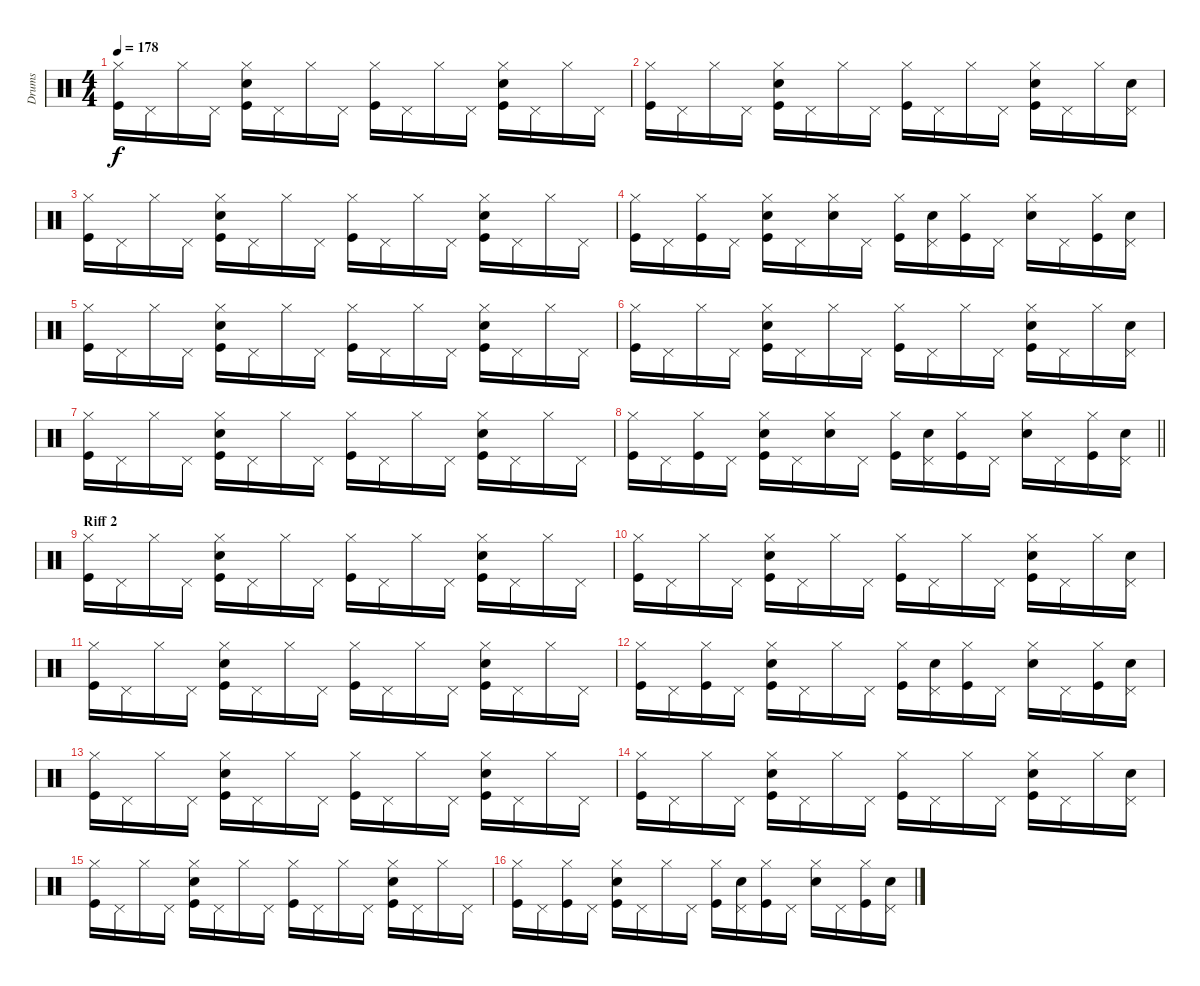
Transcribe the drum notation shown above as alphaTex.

\track ("Drums" "Drums") {instrument percussion}
\staff {score}
\articulation defaults
\ts (4 4)
\tempo 178
\clef neutral
\ks c
("Kick (hit)" "Hi-Hat (closed)").16{dy f} "Pedal Hi-Hat (hit)".16 "Hi-Hat (closed)".16 "Pedal Hi-Hat (hit)".16 ("Kick (hit)" "Electric Snare (hit)" "Hi-Hat (closed)").16 "Pedal Hi-Hat (hit)".16 "Hi-Hat (closed)".16 "Pedal Hi-Hat (hit)".16 ("Kick (hit)" "Hi-Hat (closed)").16 "Pedal Hi-Hat (hit)".16 "Hi-Hat (closed)".16 "Pedal Hi-Hat (hit)".16 ("Kick (hit)" "Electric Snare (hit)" "Hi-Hat (closed)").16 "Pedal Hi-Hat (hit)".16 "Hi-Hat (closed)".16 "Pedal Hi-Hat (hit)".16 |
("Kick (hit)" "Hi-Hat (closed)").16 "Pedal Hi-Hat (hit)".16 "Hi-Hat (closed)".16 "Pedal Hi-Hat (hit)".16 ("Kick (hit)" "Electric Snare (hit)" "Hi-Hat (closed)").16 "Pedal Hi-Hat (hit)".16 "Hi-Hat (closed)".16 "Pedal Hi-Hat (hit)".16 ("Kick (hit)" "Hi-Hat (closed)").16 "Pedal Hi-Hat (hit)".16 "Hi-Hat (closed)".16 "Pedal Hi-Hat (hit)".16 ("Kick (hit)" "Electric Snare (hit)" "Hi-Hat (closed)").16 "Pedal Hi-Hat (hit)".16 "Hi-Hat (closed)".16 ("Electric Snare (hit)" "Pedal Hi-Hat (hit)").16 |
("Kick (hit)" "Hi-Hat (closed)").16 "Pedal Hi-Hat (hit)".16 "Hi-Hat (closed)".16 "Pedal Hi-Hat (hit)".16 ("Kick (hit)" "Electric Snare (hit)" "Hi-Hat (closed)").16 "Pedal Hi-Hat (hit)".16 "Hi-Hat (closed)".16 "Pedal Hi-Hat (hit)".16 ("Kick (hit)" "Hi-Hat (closed)").16 "Pedal Hi-Hat (hit)".16 "Hi-Hat (closed)".16 "Pedal Hi-Hat (hit)".16 ("Kick (hit)" "Electric Snare (hit)" "Hi-Hat (closed)").16 "Pedal Hi-Hat (hit)".16 "Hi-Hat (closed)".16 "Pedal Hi-Hat (hit)".16 |
("Kick (hit)" "Hi-Hat (closed)").16 "Pedal Hi-Hat (hit)".16 ("Kick (hit)" "Hi-Hat (closed)").16 "Pedal Hi-Hat (hit)".16 ("Kick (hit)" "Electric Snare (hit)" "Hi-Hat (closed)").16 "Pedal Hi-Hat (hit)".16 ("Electric Snare (hit)" "Hi-Hat (closed)").16 "Pedal Hi-Hat (hit)".16 ("Kick (hit)" "Hi-Hat (closed)").16 ("Electric Snare (hit)" "Pedal Hi-Hat (hit)").16 ("Kick (hit)" "Hi-Hat (closed)").16 "Pedal Hi-Hat (hit)".16 ("Electric Snare (hit)" "Hi-Hat (closed)").16 "Pedal Hi-Hat (hit)".16 ("Kick (hit)" "Hi-Hat (closed)").16 ("Electric Snare (hit)" "Pedal Hi-Hat (hit)").16 |
("Kick (hit)" "Hi-Hat (closed)").16 "Pedal Hi-Hat (hit)".16 "Hi-Hat (closed)".16 "Pedal Hi-Hat (hit)".16 ("Kick (hit)" "Electric Snare (hit)" "Hi-Hat (closed)").16 "Pedal Hi-Hat (hit)".16 "Hi-Hat (closed)".16 "Pedal Hi-Hat (hit)".16 ("Kick (hit)" "Hi-Hat (closed)").16 "Pedal Hi-Hat (hit)".16 "Hi-Hat (closed)".16 "Pedal Hi-Hat (hit)".16 ("Kick (hit)" "Electric Snare (hit)" "Hi-Hat (closed)").16 "Pedal Hi-Hat (hit)".16 "Hi-Hat (closed)".16 "Pedal Hi-Hat (hit)".16 |
("Kick (hit)" "Hi-Hat (closed)").16 "Pedal Hi-Hat (hit)".16 "Hi-Hat (closed)".16 "Pedal Hi-Hat (hit)".16 ("Kick (hit)" "Electric Snare (hit)" "Hi-Hat (closed)").16 "Pedal Hi-Hat (hit)".16 "Hi-Hat (closed)".16 "Pedal Hi-Hat (hit)".16 ("Kick (hit)" "Hi-Hat (closed)").16 "Pedal Hi-Hat (hit)".16 "Hi-Hat (closed)".16 "Pedal Hi-Hat (hit)".16 ("Kick (hit)" "Electric Snare (hit)" "Hi-Hat (closed)").16 "Pedal Hi-Hat (hit)".16 "Hi-Hat (closed)".16 ("Electric Snare (hit)" "Pedal Hi-Hat (hit)").16 |
("Kick (hit)" "Hi-Hat (closed)").16 "Pedal Hi-Hat (hit)".16 "Hi-Hat (closed)".16 "Pedal Hi-Hat (hit)".16 ("Kick (hit)" "Electric Snare (hit)" "Hi-Hat (closed)").16 "Pedal Hi-Hat (hit)".16 "Hi-Hat (closed)".16 "Pedal Hi-Hat (hit)".16 ("Kick (hit)" "Hi-Hat (closed)").16 "Pedal Hi-Hat (hit)".16 "Hi-Hat (closed)".16 "Pedal Hi-Hat (hit)".16 ("Kick (hit)" "Electric Snare (hit)" "Hi-Hat (closed)").16 "Pedal Hi-Hat (hit)".16 "Hi-Hat (closed)".16 "Pedal Hi-Hat (hit)".16 |
\barLineRight lightlight
("Kick (hit)" "Hi-Hat (closed)").16 "Pedal Hi-Hat (hit)".16 ("Kick (hit)" "Hi-Hat (closed)").16 "Pedal Hi-Hat (hit)".16 ("Kick (hit)" "Electric Snare (hit)" "Hi-Hat (closed)").16 "Pedal Hi-Hat (hit)".16 ("Electric Snare (hit)" "Hi-Hat (closed)").16 "Pedal Hi-Hat (hit)".16 ("Kick (hit)" "Hi-Hat (closed)").16 ("Electric Snare (hit)" "Pedal Hi-Hat (hit)").16 ("Kick (hit)" "Hi-Hat (closed)").16 "Pedal Hi-Hat (hit)".16 ("Electric Snare (hit)" "Hi-Hat (closed)").16 "Pedal Hi-Hat (hit)".16 ("Kick (hit)" "Hi-Hat (closed)").16 ("Electric Snare (hit)" "Pedal Hi-Hat (hit)").16 |
\section ("" "Riff 2")
("Kick (hit)" "Hi-Hat (closed)").16 "Pedal Hi-Hat (hit)".16 "Hi-Hat (closed)".16 "Pedal Hi-Hat (hit)".16 ("Kick (hit)" "Electric Snare (hit)" "Hi-Hat (closed)").16 "Pedal Hi-Hat (hit)".16 "Hi-Hat (closed)".16 "Pedal Hi-Hat (hit)".16 ("Kick (hit)" "Hi-Hat (closed)").16 "Pedal Hi-Hat (hit)".16 "Hi-Hat (closed)".16 "Pedal Hi-Hat (hit)".16 ("Kick (hit)" "Electric Snare (hit)" "Hi-Hat (closed)").16 "Pedal Hi-Hat (hit)".16 "Hi-Hat (closed)".16 "Pedal Hi-Hat (hit)".16 |
("Kick (hit)" "Hi-Hat (closed)").16 "Pedal Hi-Hat (hit)".16 "Hi-Hat (closed)".16 "Pedal Hi-Hat (hit)".16 ("Kick (hit)" "Electric Snare (hit)" "Hi-Hat (closed)").16 "Pedal Hi-Hat (hit)".16 "Hi-Hat (closed)".16 "Pedal Hi-Hat (hit)".16 ("Kick (hit)" "Hi-Hat (closed)").16 "Pedal Hi-Hat (hit)".16 "Hi-Hat (closed)".16 "Pedal Hi-Hat (hit)".16 ("Kick (hit)" "Electric Snare (hit)" "Hi-Hat (closed)").16 "Pedal Hi-Hat (hit)".16 "Hi-Hat (closed)".16 ("Electric Snare (hit)" "Pedal Hi-Hat (hit)").16 |
("Kick (hit)" "Hi-Hat (closed)").16 "Pedal Hi-Hat (hit)".16 "Hi-Hat (closed)".16 "Pedal Hi-Hat (hit)".16 ("Kick (hit)" "Electric Snare (hit)" "Hi-Hat (closed)").16 "Pedal Hi-Hat (hit)".16 "Hi-Hat (closed)".16 "Pedal Hi-Hat (hit)".16 ("Kick (hit)" "Hi-Hat (closed)").16 "Pedal Hi-Hat (hit)".16 "Hi-Hat (closed)".16 "Pedal Hi-Hat (hit)".16 ("Kick (hit)" "Electric Snare (hit)" "Hi-Hat (closed)").16 "Pedal Hi-Hat (hit)".16 "Hi-Hat (closed)".16 "Pedal Hi-Hat (hit)".16 |
("Kick (hit)" "Hi-Hat (closed)").16 "Pedal Hi-Hat (hit)".16 ("Kick (hit)" "Hi-Hat (closed)").16 "Pedal Hi-Hat (hit)".16 ("Kick (hit)" "Electric Snare (hit)" "Hi-Hat (closed)").16 "Pedal Hi-Hat (hit)".16 "Hi-Hat (closed)".16 "Pedal Hi-Hat (hit)".16 ("Kick (hit)" "Hi-Hat (closed)").16 ("Electric Snare (hit)" "Pedal Hi-Hat (hit)").16 ("Kick (hit)" "Hi-Hat (closed)").16 "Pedal Hi-Hat (hit)".16 ("Electric Snare (hit)" "Hi-Hat (closed)").16 "Pedal Hi-Hat (hit)".16 ("Kick (hit)" "Hi-Hat (closed)").16 ("Electric Snare (hit)" "Pedal Hi-Hat (hit)").16 |
("Kick (hit)" "Hi-Hat (closed)").16 "Pedal Hi-Hat (hit)".16 "Hi-Hat (closed)".16 "Pedal Hi-Hat (hit)".16 ("Kick (hit)" "Electric Snare (hit)" "Hi-Hat (closed)").16 "Pedal Hi-Hat (hit)".16 "Hi-Hat (closed)".16 "Pedal Hi-Hat (hit)".16 ("Kick (hit)" "Hi-Hat (closed)").16 "Pedal Hi-Hat (hit)".16 "Hi-Hat (closed)".16 "Pedal Hi-Hat (hit)".16 ("Kick (hit)" "Electric Snare (hit)" "Hi-Hat (closed)").16 "Pedal Hi-Hat (hit)".16 "Hi-Hat (closed)".16 "Pedal Hi-Hat (hit)".16 |
("Kick (hit)" "Hi-Hat (closed)").16 "Pedal Hi-Hat (hit)".16 "Hi-Hat (closed)".16 "Pedal Hi-Hat (hit)".16 ("Kick (hit)" "Electric Snare (hit)" "Hi-Hat (closed)").16 "Pedal Hi-Hat (hit)".16 "Hi-Hat (closed)".16 "Pedal Hi-Hat (hit)".16 ("Kick (hit)" "Hi-Hat (closed)").16 "Pedal Hi-Hat (hit)".16 "Hi-Hat (closed)".16 "Pedal Hi-Hat (hit)".16 ("Kick (hit)" "Electric Snare (hit)" "Hi-Hat (closed)").16 "Pedal Hi-Hat (hit)".16 "Hi-Hat (closed)".16 ("Electric Snare (hit)" "Pedal Hi-Hat (hit)").16 |
("Kick (hit)" "Hi-Hat (closed)").16 "Pedal Hi-Hat (hit)".16 "Hi-Hat (closed)".16 "Pedal Hi-Hat (hit)".16 ("Kick (hit)" "Electric Snare (hit)" "Hi-Hat (closed)").16 "Pedal Hi-Hat (hit)".16 "Hi-Hat (closed)".16 "Pedal Hi-Hat (hit)".16 ("Kick (hit)" "Hi-Hat (closed)").16 "Pedal Hi-Hat (hit)".16 "Hi-Hat (closed)".16 "Pedal Hi-Hat (hit)".16 ("Kick (hit)" "Electric Snare (hit)" "Hi-Hat (closed)").16 "Pedal Hi-Hat (hit)".16 "Hi-Hat (closed)".16 "Pedal Hi-Hat (hit)".16 |
("Kick (hit)" "Hi-Hat (closed)").16 "Pedal Hi-Hat (hit)".16 ("Kick (hit)" "Hi-Hat (closed)").16 "Pedal Hi-Hat (hit)".16 ("Kick (hit)" "Electric Snare (hit)" "Hi-Hat (closed)").16 "Pedal Hi-Hat (hit)".16 "Hi-Hat (closed)".16 "Pedal Hi-Hat (hit)".16 ("Kick (hit)" "Hi-Hat (closed)").16 ("Electric Snare (hit)" "Pedal Hi-Hat (hit)").16 ("Kick (hit)" "Hi-Hat (closed)").16 "Pedal Hi-Hat (hit)".16 ("Electric Snare (hit)" "Hi-Hat (closed)").16 "Pedal Hi-Hat (hit)".16 ("Kick (hit)" "Hi-Hat (closed)").16 ("Electric Snare (hit)" "Pedal Hi-Hat (hit)").16
